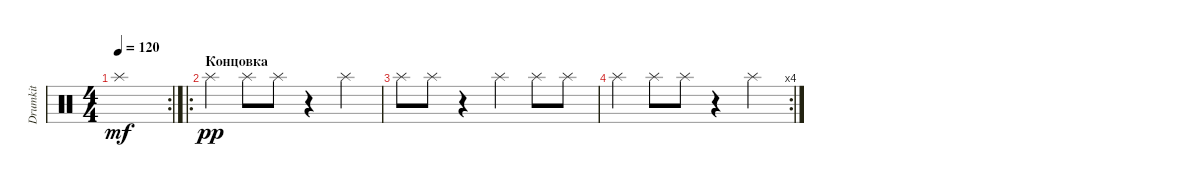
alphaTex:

\track ("Drumkit" "Drumkit") {instrument percussion}
\staff {score}
\articulation defaults
\rc 2
\ts (4 4)
\tempo 120
\clef neutral
\ks c "Splash (hit)".1{dy mf}
|
\ro
\section ("" "Концовка")
"Splash (hit)".4{dy pp} "Splash (hit)".8 "Splash (hit)".8 r.4 "Splash (hit)".4 |
"Splash (hit)".8 "Splash (hit)".8 r.4 "Splash (hit)".4 "Splash (hit)".8 "Splash (hit)".8 |
\rc 4 "Splash (hit)".4 "Splash (hit)".8 "Splash (hit)".8
r.4 "Splash (hit)".4
